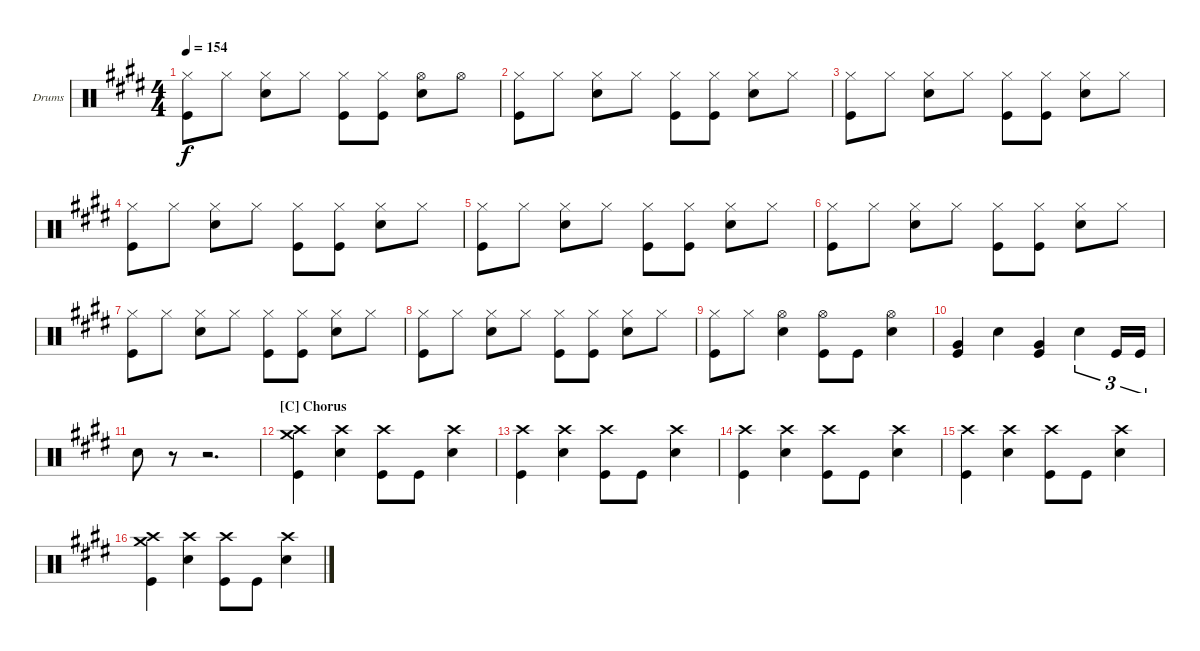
\defaultSystemsLayout 4
\bracketExtendMode groupsimilarinstruments
\firstSystemTrackNameOrientation horizontal
\otherSystemsTrackNameOrientation horizontal
\track ("Jon Larsen" "Drums") {instrument percussion}
\staff {score}
\articulation defaults
\ts (4 4)
\tempo 154
\clef neutral
\scale
0.333333
\ks e
("Hi-Hat (closed)" "Kick (hit)").8{dy f} "Hi-Hat (closed)".8 ("Hi-Hat (closed)" "Snare (hit) 2").8 "Hi-Hat (closed)".8 ("Hi-Hat (closed)" "Kick (hit)").8 ("Hi-Hat (closed)" "Kick (hit)").8 ("Hi-Hat (open)" "Snare (hit) 2").8 "Hi-Hat (open)".8 |
\scale
0.333333 ("Hi-Hat (closed)" "Kick (hit)").8 "Hi-Hat (closed)".8 ("Hi-Hat (closed)" "Snare (hit) 2").8 "Hi-Hat (closed)".8 ("Hi-Hat (closed)" "Kick (hit)").8 ("Hi-Hat (closed)" "Kick (hit)").8 ("Hi-Hat (closed)" "Snare (hit) 2").8 "Hi-Hat (closed)".8 |
\scale
0.333333 ("Hi-Hat (closed)" "Kick (hit)").8 "Hi-Hat (closed)".8 ("Hi-Hat (closed)" "Snare (hit) 2").8 "Hi-Hat (closed)".8 ("Hi-Hat (closed)" "Kick (hit)").8 ("Hi-Hat (closed)" "Kick (hit)").8 ("Hi-Hat (closed)" "Snare (hit) 2").8 "Hi-Hat (closed)".8 |
\scale
0.333333 ("Hi-Hat (closed)" "Kick (hit)").8 "Hi-Hat (closed)".8 ("Hi-Hat (closed)" "Snare (hit) 2").8 "Hi-Hat (closed)".8 ("Hi-Hat (closed)" "Kick (hit)").8 ("Hi-Hat (closed)" "Kick (hit)").8 ("Hi-Hat (closed)" "Snare (hit) 2").8 "Hi-Hat (closed)".8 |
\scale
0.333333 ("Hi-Hat (closed)" "Kick (hit)").8 "Hi-Hat (closed)".8 ("Hi-Hat (closed)" "Snare (hit) 2").8 "Hi-Hat (closed)".8 ("Hi-Hat (closed)" "Kick (hit)").8 ("Hi-Hat (closed)" "Kick (hit)").8 ("Hi-Hat (closed)" "Snare (hit) 2").8 "Hi-Hat (closed)".8 |
\scale
0.333333 ("Hi-Hat (closed)" "Kick (hit)").8 "Hi-Hat (closed)".8 ("Hi-Hat (closed)" "Snare (hit) 2").8 "Hi-Hat (closed)".8 ("Hi-Hat (closed)" "Kick (hit)").8 ("Hi-Hat (closed)" "Kick (hit)").8 ("Hi-Hat (closed)" "Snare (hit) 2").8 "Hi-Hat (closed)".8 |
\scale
0.333333 ("Hi-Hat (closed)" "Kick (hit)").8 "Hi-Hat (closed)".8 ("Hi-Hat (closed)" "Snare (hit) 2").8 "Hi-Hat (closed)".8 ("Hi-Hat (closed)" "Kick (hit)").8 ("Hi-Hat (closed)" "Kick (hit)").8 ("Hi-Hat (closed)" "Snare (hit) 2").8 "Hi-Hat (closed)".8 |
\scale
0.333333 ("Hi-Hat (closed)" "Kick (hit)").8 "Hi-Hat (closed)".8 ("Hi-Hat (closed)" "Snare (hit) 2").8 "Hi-Hat (closed)".8 ("Hi-Hat (closed)" "Kick (hit)").8 ("Hi-Hat (closed)" "Kick (hit)").8 ("Hi-Hat (closed)" "Snare (hit) 2").8 "Hi-Hat (closed)".8 |
\scale
0.333333 ("Hi-Hat (closed)" "Kick (hit)").8 "Hi-Hat (closed)".8 ("Hi-Hat (open)" "Snare (hit) 2").4 ("Hi-Hat (open)" "Kick (hit)").8 "Kick (hit)".8 ("Hi-Hat (open)" "Snare (hit) 2").4 |
\scale
0.333333 ("Very Low Tom (hit)" "Kick (hit)").4 "Snare (hit) 2".4 ("Very Low Tom (hit)" "Kick (hit)").4 "Snare (hit) 2".4{tu (3 2)} "Kick (hit)".16{tu (3 2)} "Kick (hit)".16{tu (3 2)} |
\scale
0.333333 "Snare (hit) 2".8 r.8 r.2{d} |
\section ("C" "Chorus")
\scale
0.333333 ("Crash medium (hit)" "Crash high (hit)" "Kick (hit)").4 ("Crash high (hit)" "Snare (hit) 2").4 ("Crash high (hit)" "Kick (hit)").8 "Kick (hit)".8 ("Crash high (hit)" "Snare (hit) 2").4 |
\scale
0.333333 ("Crash high (hit)" "Kick (hit)").4 ("Crash high (hit)" "Snare (hit) 2").4 ("Crash high (hit)" "Kick (hit)").8 "Kick (hit)".8 ("Crash high (hit)" "Snare (hit) 2").4 |
\scale
0.333333 ("Crash high (hit)" "Kick (hit)").4 ("Crash high (hit)" "Snare (hit) 2").4 ("Crash high (hit)" "Kick (hit)").8 "Kick (hit)".8 ("Crash high (hit)" "Snare (hit) 2").4 |
\scale
0.333333 ("Crash high (hit)" "Kick (hit)").4 ("Crash high (hit)" "Snare (hit) 2").4 ("Crash high (hit)" "Kick (hit)").8 "Kick (hit)".8 ("Crash high (hit)" "Snare (hit) 2").4 |
\scale
0.333333 ("Crash medium (hit)" "Crash high (hit)" "Kick (hit)").4 ("Crash high (hit)" "Snare (hit) 2").4 ("Crash high (hit)" "Kick (hit)").8 "Kick (hit)".8 ("Crash high (hit)" "Snare (hit) 2").4
